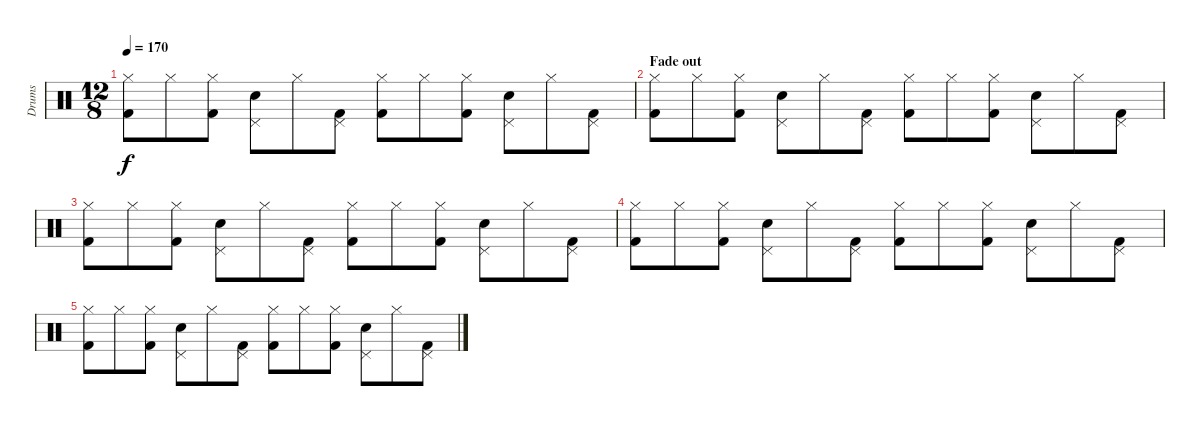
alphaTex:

\track ("Drums" "Drums") {instrument percussion}
\staff {score}
\articulation defaults
\ts (12 8)
\tempo 170
\clef neutral
\ks c
("Kick (hit) 2" "Hi-Hat (closed)").8{dy f} "Hi-Hat (closed)".8 ("Kick (hit) 2" "Hi-Hat (closed)").8 ("Snare (hit) 2" "Pedal Hi-Hat (hit)").8 "Hi-Hat (closed)".8 ("Kick (hit) 2" "Pedal Hi-Hat (hit)").8 ("Kick (hit) 2" "Hi-Hat (closed)").8 "Hi-Hat (closed)".8 ("Kick (hit) 2" "Hi-Hat (closed)").8 ("Snare (hit) 2" "Pedal Hi-Hat (hit)").8 "Hi-Hat (closed)".8 ("Kick (hit) 2" "Pedal Hi-Hat (hit)").8 |
\section ("" "Fade out")
("Kick (hit) 2" "Hi-Hat (closed)").8 "Hi-Hat (closed)".8 ("Kick (hit) 2" "Hi-Hat (closed)").8 ("Snare (hit) 2" "Pedal Hi-Hat (hit)").8 "Hi-Hat (closed)".8 ("Kick (hit) 2" "Pedal Hi-Hat (hit)").8 ("Kick (hit) 2" "Hi-Hat (closed)").8 "Hi-Hat (closed)".8 ("Kick (hit) 2" "Hi-Hat (closed)").8 ("Snare (hit) 2" "Pedal Hi-Hat (hit)").8 "Hi-Hat (closed)".8 ("Kick (hit) 2" "Pedal Hi-Hat (hit)").8 |
("Kick (hit) 2" "Hi-Hat (closed)").8 "Hi-Hat (closed)".8 ("Kick (hit) 2" "Hi-Hat (closed)").8 ("Snare (hit) 2" "Pedal Hi-Hat (hit)").8 "Hi-Hat (closed)".8 ("Kick (hit) 2" "Pedal Hi-Hat (hit)").8 ("Kick (hit) 2" "Hi-Hat (closed)").8 "Hi-Hat (closed)".8 ("Kick (hit) 2" "Hi-Hat (closed)").8 ("Snare (hit) 2" "Pedal Hi-Hat (hit)").8 "Hi-Hat (closed)".8 ("Kick (hit) 2" "Pedal Hi-Hat (hit)").8 |
("Kick (hit) 2" "Hi-Hat (closed)").8 "Hi-Hat (closed)".8 ("Kick (hit) 2" "Hi-Hat (closed)").8 ("Snare (hit) 2" "Pedal Hi-Hat (hit)").8 "Hi-Hat (closed)".8 ("Kick (hit) 2" "Pedal Hi-Hat (hit)").8 ("Kick (hit) 2" "Hi-Hat (closed)").8 "Hi-Hat (closed)".8 ("Kick (hit) 2" "Hi-Hat (closed)").8 ("Snare (hit) 2" "Pedal Hi-Hat (hit)").8 "Hi-Hat (closed)".8 ("Kick (hit) 2" "Pedal Hi-Hat (hit)").8 |
("Kick (hit) 2" "Hi-Hat (closed)").8 "Hi-Hat (closed)".8 ("Kick (hit) 2" "Hi-Hat (closed)").8 ("Snare (hit) 2" "Pedal Hi-Hat (hit)").8 "Hi-Hat (closed)".8 ("Kick (hit) 2" "Pedal Hi-Hat (hit)").8 ("Kick (hit) 2" "Hi-Hat (closed)").8 "Hi-Hat (closed)".8 ("Kick (hit) 2" "Hi-Hat (closed)").8 ("Snare (hit) 2" "Pedal Hi-Hat (hit)").8 "Hi-Hat (closed)".8 ("Kick (hit) 2" "Pedal Hi-Hat (hit)").8
